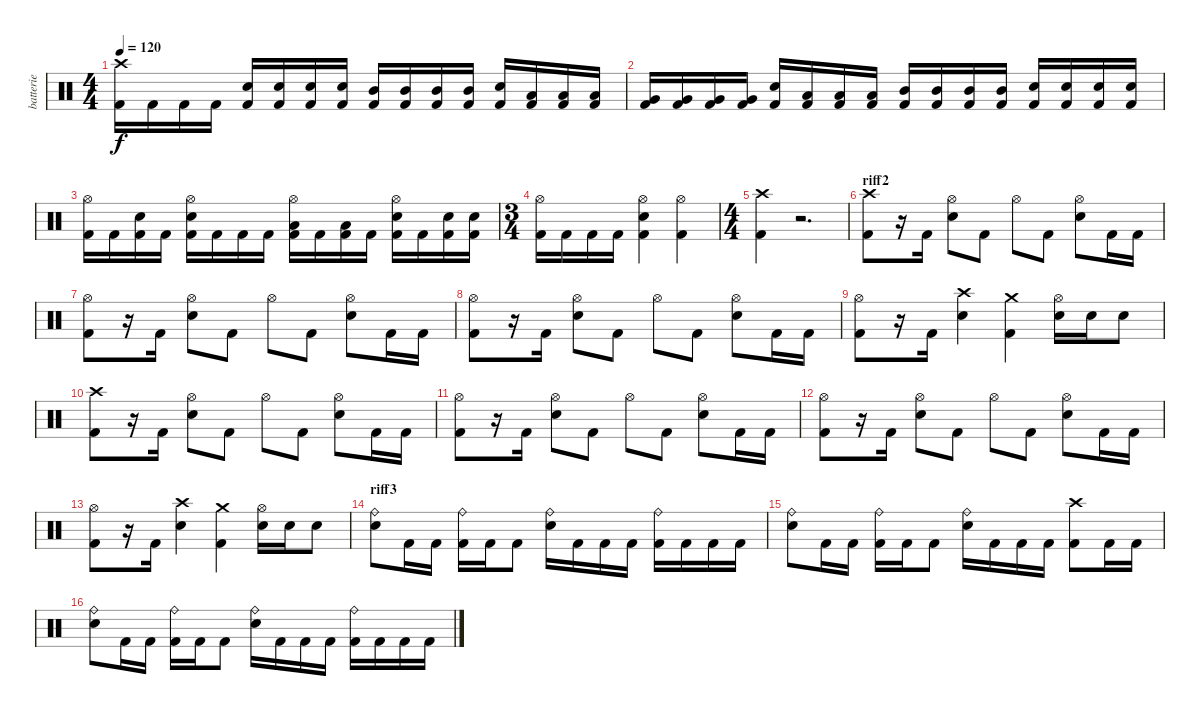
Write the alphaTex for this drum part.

\track ("batterie" "batterie") {instrument percussion}
\staff {score}
\articulation defaults
\ts (4 4)
\tempo 120
\clef neutral
\ks c
("Crash high (hit)" "Kick (hit) 2").16{dy f} "Kick (hit) 2".16 "Kick (hit) 2".16 "Kick (hit) 2".16 ("Snare (hit) 2" "Kick (hit) 2").16 ("Snare (hit) 2" "Kick (hit) 2").16 ("Snare (hit) 2" "Kick (hit) 2").16 ("Snare (hit) 2" "Kick (hit) 2").16 ("Mid Tom (hit)" "Kick (hit) 2").16 ("Mid Tom (hit)" "Kick (hit) 2").16 ("Mid Tom (hit)" "Kick (hit) 2").16 ("Mid Tom (hit)" "Kick (hit) 2").16 ("Snare (hit) 2" "Kick (hit) 2").16 ("Low Tom (hit)" "Kick (hit) 2").16 ("Low Tom (hit)" "Kick (hit) 2").16 ("Low Tom (hit)" "Kick (hit) 2").16 |
("Very Low Tom (hit)" "Kick (hit) 2").16 ("Very Low Tom (hit)" "Kick (hit) 2").16 ("Very Low Tom (hit)" "Kick (hit) 2").16 ("Very Low Tom (hit)" "Kick (hit) 2").16 ("Snare (hit) 2" "Kick (hit) 2").16 ("Low Tom (hit)" "Kick (hit) 2").16 ("Low Tom (hit)" "Kick (hit) 2").16 ("Low Tom (hit)" "Kick (hit) 2").16 ("Mid Tom (hit)" "Kick (hit) 2").16 ("Mid Tom (hit)" "Kick (hit) 2").16 ("Mid Tom (hit)" "Kick (hit) 2").16 ("Mid Tom (hit)" "Kick (hit) 2").16 ("Snare (hit) 2" "Kick (hit) 2").16 ("Snare (hit) 2" "Kick (hit) 2").16 ("Snare (hit) 2" "Kick (hit) 2").16 ("Snare (hit) 2" "Kick (hit) 2").16 |
("Kick (hit) 2" "Hi-Hat (open)").16 "Kick (hit) 2".16 ("Snare (hit) 2" "Kick (hit) 2").16 "Kick (hit) 2".16 ("Snare (hit) 2" "Kick (hit) 2" "Hi-Hat (open)").16 "Kick (hit) 2".16 "Kick (hit) 2".16 "Kick (hit) 2".16 ("Low Tom (hit)" "Kick (hit) 2" "Hi-Hat (open)").16 "Kick (hit) 2".16 ("Low Tom (hit)" "Kick (hit) 2").16 "Kick (hit) 2".16 ("Snare (hit) 2" "Kick (hit) 2" "Hi-Hat (open)").16 "Kick (hit) 2".16 ("Snare (hit) 2" "Kick (hit) 2").16 ("Snare (hit) 2" "Kick (hit) 2").16 |
\ts (3 4)
("Kick (hit) 2" "Hi-Hat (open)").16 "Kick (hit) 2".16 "Kick (hit) 2".16 "Kick (hit) 2".16 ("Snare (hit) 2" "Kick (hit) 2" "Hi-Hat (open)").4 ("Kick (hit) 2" "Hi-Hat (open)").4 |
\ts (4 4)
("Crash high (hit)" "Kick (hit) 2").4 r.2{d} |
\section ("" "riff2")
("Crash high (hit)" "Kick (hit) 2").8 r.16 "Kick (hit) 2".16 ("Snare (hit) 2" "Hi-Hat (open)").8 "Kick (hit) 2".8 "Hi-Hat (open)".8 "Kick (hit) 2".8 ("Snare (hit) 2" "Hi-Hat (open)").8 "Kick (hit) 2".16 "Kick (hit) 2".16 |
("Kick (hit) 2" "Hi-Hat (open)").8 r.16 "Kick (hit) 2".16 ("Snare (hit) 2" "Hi-Hat (open)").8 "Kick (hit) 2".8 "Hi-Hat (open)".8 "Kick (hit) 2".8 ("Snare (hit) 2" "Hi-Hat (open)").8 "Kick (hit) 2".16 "Kick (hit) 2".16 |
("Kick (hit) 2" "Hi-Hat (open)").8 r.16 "Kick (hit) 2".16 ("Snare (hit) 2" "Hi-Hat (open)").8 "Kick (hit) 2".8 "Hi-Hat (open)".8 "Kick (hit) 2".8 ("Snare (hit) 2" "Hi-Hat (open)").8 "Kick (hit) 2".16 "Kick (hit) 2".16 |
("Kick (hit) 2" "Hi-Hat (open)").8 r.16 "Kick (hit) 2".16 ("Crash high (hit)" "Snare (hit) 2").4 ("Crash medium (hit)" "Kick (hit) 2").4 ("Snare (hit) 2" "Hi-Hat (open)").16 "Snare (hit) 2".16 "Snare (hit) 2".8 |
("Crash high (hit)" "Kick (hit) 2").8 r.16 "Kick (hit) 2".16 ("Snare (hit) 2" "Hi-Hat (open)").8 "Kick (hit) 2".8 "Hi-Hat (open)".8 "Kick (hit) 2".8 ("Snare (hit) 2" "Hi-Hat (open)").8 "Kick (hit) 2".16 "Kick (hit) 2".16 |
("Kick (hit) 2" "Hi-Hat (open)").8 r.16 "Kick (hit) 2".16 ("Snare (hit) 2" "Hi-Hat (open)").8 "Kick (hit) 2".8 "Hi-Hat (open)".8 "Kick (hit) 2".8 ("Snare (hit) 2" "Hi-Hat (open)").8 "Kick (hit) 2".16 "Kick (hit) 2".16 |
("Kick (hit) 2" "Hi-Hat (open)").8 r.16 "Kick (hit) 2".16 ("Snare (hit) 2" "Hi-Hat (open)").8 "Kick (hit) 2".8 "Hi-Hat (open)".8 "Kick (hit) 2".8 ("Snare (hit) 2" "Hi-Hat (open)").8 "Kick (hit) 2".16 "Kick (hit) 2".16 |
("Kick (hit) 2" "Hi-Hat (open)").8 r.16 "Kick (hit) 2".16 ("Crash high (hit)" "Snare (hit) 2").4 ("Crash medium (hit)" "Kick (hit) 2").4 ("Snare (hit) 2" "Hi-Hat (open)").16 "Snare (hit) 2".16 "Snare (hit) 2".8 |
\section ("" "riff3")
("Snare (hit) 2" "Ride (bell)").8 "Kick (hit) 2".16 "Kick (hit) 2".16 ("Kick (hit) 2" "Ride (bell)").16 "Kick (hit) 2".16 "Kick (hit) 2".8 ("Snare (hit) 2" "Ride (bell)").16 "Kick (hit) 2".16 "Kick (hit) 2".16 "Kick (hit) 2".16 ("Kick (hit) 2" "Ride (bell)").16 "Kick (hit) 2".16 "Kick (hit) 2".16 "Kick (hit) 2".16 |
("Snare (hit) 2" "Ride (bell)").8 "Kick (hit) 2".16 "Kick (hit) 2".16 ("Kick (hit) 2" "Ride (bell)").16 "Kick (hit) 2".16 "Kick (hit) 2".8 ("Snare (hit) 2" "Ride (bell)").16 "Kick (hit) 2".16 "Kick (hit) 2".16 "Kick (hit) 2".16 ("Crash high (hit)" "Kick (hit) 2").8 "Kick (hit) 2".16 "Kick (hit) 2".16 |
("Snare (hit) 2" "Ride (bell)").8 "Kick (hit) 2".16 "Kick (hit) 2".16 ("Kick (hit) 2" "Ride (bell)").16 "Kick (hit) 2".16 "Kick (hit) 2".8 ("Snare (hit) 2" "Ride (bell)").16 "Kick (hit) 2".16 "Kick (hit) 2".16 "Kick (hit) 2".16 ("Kick (hit) 2" "Ride (bell)").16 "Kick (hit) 2".16 "Kick (hit) 2".16 "Kick (hit) 2".16
